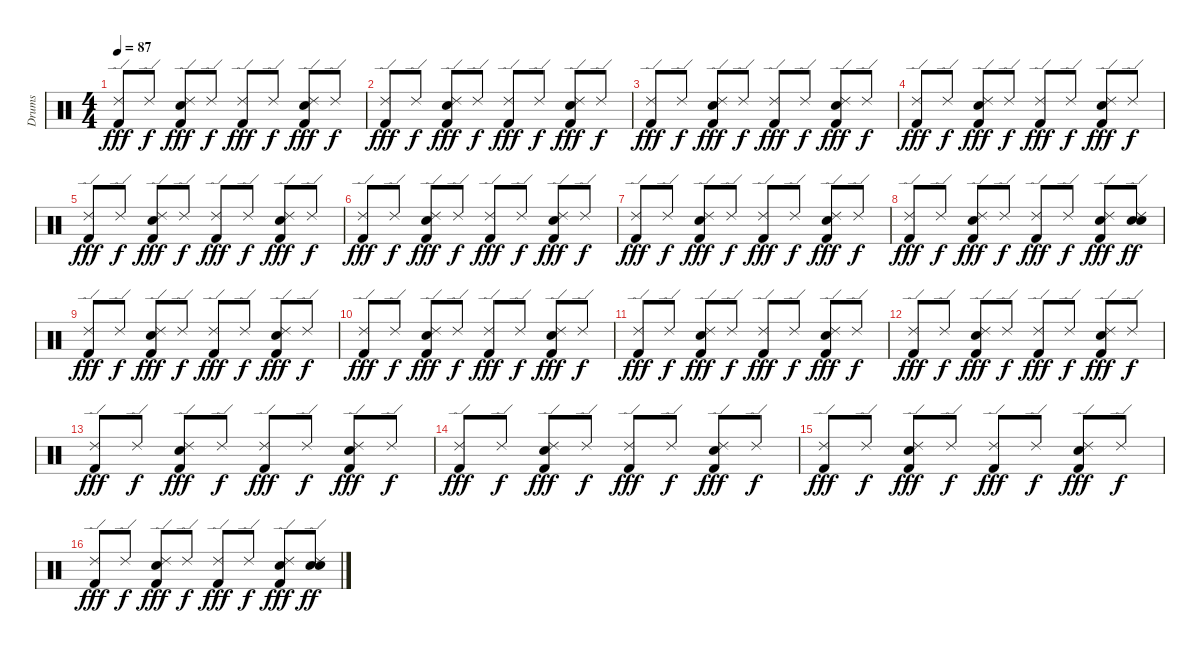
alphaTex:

\track ("Drums" "Drums") {instrument percussion}
\staff {score}
\articulation defaults
\ts (4 4)
\tempo 87
\clef neutral
\ks c
("Kick (hit) 2" "Ride (edge) 2").8{dy fff} "Ride (edge) 2".8{dy f} ("Electric Snare (hit)" "Kick (hit) 2" "Ride (edge) 2").8{dy fff} "Ride (edge) 2".8{dy f} ("Kick (hit) 2" "Ride (edge) 2").8{dy fff} "Ride (edge) 2".8{dy f} ("Electric Snare (hit)" "Kick (hit) 2" "Ride (edge) 2").8{dy fff} "Ride (edge) 2".8{dy f} |
("Kick (hit) 2" "Ride (edge) 2").8{dy fff volume 15} "Ride (edge) 2".8{dy f} ("Electric Snare (hit)" "Kick (hit) 2" "Ride (edge) 2").8{dy fff volume 15} "Ride (edge) 2".8{dy f volume 15} ("Kick (hit) 2" "Ride (edge) 2").8{dy fff volume 15} "Ride (edge) 2".8{dy f} ("Electric Snare (hit)" "Kick (hit) 2" "Ride (edge) 2").8{dy fff volume 14} "Ride (edge) 2".8{dy f volume 14} |
("Kick (hit) 2" "Ride (edge) 2").8{dy fff volume 14} "Ride (edge) 2".8{dy f volume 14} ("Electric Snare (hit)" "Kick (hit) 2" "Ride (edge) 2").8{dy fff} "Ride (edge) 2".8{dy f volume 14} ("Kick (hit) 2" "Ride (edge) 2").8{dy fff volume 14} "Ride (edge) 2".8{dy f volume 14} ("Electric Snare (hit)" "Kick (hit) 2" "Ride (edge) 2").8{dy fff volume 14} "Ride (edge) 2".8{dy f} |
("Kick (hit) 2" "Ride (edge) 2").8{dy fff volume 14} "Ride (edge) 2".8{dy f volume 13} ("Electric Snare (hit)" "Kick (hit) 2" "Ride (edge) 2").8{dy fff volume 13} "Ride (edge) 2".8{dy f volume 13} ("Kick (hit) 2" "Ride (edge) 2").8{dy fff} "Ride (edge) 2".8{dy f volume 13} ("Electric Snare (hit)" "Kick (hit) 2" "Ride (edge) 2").8{dy fff volume 13} "Ride (edge) 2".8{dy f volume 13} |
("Kick (hit) 2" "Ride (edge) 2").8{dy fff} "Ride (edge) 2".8{dy f volume 13} ("Electric Snare (hit)" "Kick (hit) 2" "Ride (edge) 2").8{dy fff volume 12} "Ride (edge) 2".8{dy f volume 12} ("Kick (hit) 2" "Ride (edge) 2").8{dy fff volume 12} "Ride (edge) 2".8{dy f} ("Electric Snare (hit)" "Kick (hit) 2" "Ride (edge) 2").8{dy fff volume 12} "Ride (edge) 2".8{dy f volume 12} |
("Kick (hit) 2" "Ride (edge) 2").8{dy fff volume 12} "Ride (edge) 2".8{dy f volume 12} ("Electric Snare (hit)" "Kick (hit) 2" "Ride (edge) 2").8{dy fff} "Ride (edge) 2".8{dy f volume 12} ("Kick (hit) 2" "Ride (edge) 2").8{dy fff volume 12} "Ride (edge) 2".8{dy f volume 11} ("Electric Snare (hit)" "Kick (hit) 2" "Ride (edge) 2").8{dy fff volume 11} "Ride (edge) 2".8{dy f} |
("Kick (hit) 2" "Ride (edge) 2").8{dy fff volume 11} "Ride (edge) 2".8{dy f volume 11} ("Electric Snare (hit)" "Kick (hit) 2" "Ride (edge) 2").8{dy fff volume 11} "Ride (edge) 2".8{dy f} ("Kick (hit) 2" "Ride (edge) 2").8{dy fff volume 11} "Ride (edge) 2".8{dy f volume 11} ("Electric Snare (hit)" "Kick (hit) 2" "Ride (edge) 2").8{dy fff volume 10} "Ride (edge) 2".8{dy f volume 10} |
("Kick (hit) 2" "Ride (edge) 2").8{dy fff} "Ride (edge) 2".8{dy f volume 10} ("Electric Snare (hit)" "Kick (hit) 2" "Ride (edge) 2").8{dy fff volume 10} "Ride (edge) 2".8{dy f volume 10} ("Kick (hit) 2" "Ride (edge) 2").8{dy fff volume 10} "Ride (edge) 2".8{dy f} ("Electric Snare (hit)" "Kick (hit) 2" "Ride (edge) 2").8{dy fff volume 10} ("Electric Snare (hit)" "Ride (edge) 2" "Electric Snare (hit)").8{dy ff volume 10} |
("Kick (hit) 2" "Ride (edge) 2").8{dy fff volume 10} "Ride (edge) 2".8{dy f volume 9} ("Electric Snare (hit)" "Kick (hit) 2" "Ride (edge) 2").8{dy fff} "Ride (edge) 2".8{dy f volume 9} ("Kick (hit) 2" "Ride (edge) 2").8{dy fff volume 9} "Ride (edge) 2".8{dy f volume 9} ("Electric Snare (hit)" "Kick (hit) 2" "Ride (edge) 2").8{dy fff} "Ride (edge) 2".8{dy f volume 9} |
("Kick (hit) 2" "Ride (edge) 2").8{dy fff volume 9} "Ride (edge) 2".8{dy f volume 9} ("Electric Snare (hit)" "Kick (hit) 2" "Ride (edge) 2").8{dy fff volume 8} "Ride (edge) 2".8{dy f} ("Kick (hit) 2" "Ride (edge) 2").8{dy fff volume 8} "Ride (edge) 2".8{dy f volume 8} ("Electric Snare (hit)" "Kick (hit) 2" "Ride (edge) 2").8{dy fff volume 8} "Ride (edge) 2".8{dy f volume 8} |
("Kick (hit) 2" "Ride (edge) 2").8{dy fff} "Ride (edge) 2".8{dy f volume 8} ("Electric Snare (hit)" "Kick (hit) 2" "Ride (edge) 2").8{dy fff volume 8} "Ride (edge) 2".8{dy f volume 8} ("Kick (hit) 2" "Ride (edge) 2").8{dy fff volume 8} "Ride (edge) 2".8{dy f} ("Electric Snare (hit)" "Kick (hit) 2" "Ride (edge) 2").8{dy fff volume 7} "Ride (edge) 2".8{dy f volume 7} |
("Kick (hit) 2" "Ride (edge) 2").8{dy fff volume 7} "Ride (edge) 2".8{dy f} ("Electric Snare (hit)" "Kick (hit) 2" "Ride (edge) 2").8{dy fff volume 7} "Ride (edge) 2".8{dy f volume 7} ("Kick (hit) 2" "Ride (edge) 2").8{dy fff volume 7} "Ride (edge) 2".8{dy f volume 7} ("Electric Snare (hit)" "Kick (hit) 2" "Ride (edge) 2").8{dy fff} "Ride (edge) 2".8{dy f volume 6} |
("Kick (hit) 2" "Ride (edge) 2").8{dy fff volume 6} "Ride (edge) 2".8{dy f volume 6} ("Electric Snare (hit)" "Kick (hit) 2" "Ride (edge) 2").8{dy fff volume 6} "Ride (edge) 2".8{dy f} ("Kick (hit) 2" "Ride (edge) 2").8{dy fff volume 6} "Ride (edge) 2".8{dy f volume 6} ("Electric Snare (hit)" "Kick (hit) 2" "Ride (edge) 2").8{dy fff volume 6} "Ride (edge) 2".8{dy f volume 6} |
("Kick (hit) 2" "Ride (edge) 2").8{dy fff} "Ride (edge) 2".8{dy f volume 6} ("Electric Snare (hit)" "Kick (hit) 2" "Ride (edge) 2").8{dy fff volume 5} "Ride (edge) 2".8{dy f volume 5} ("Kick (hit) 2" "Ride (edge) 2").8{dy fff} "Ride (edge) 2".8{dy f volume 5} ("Electric Snare (hit)" "Kick (hit) 2" "Ride (edge) 2").8{dy fff volume 5} "Ride (edge) 2".8{dy f volume 5} |
("Kick (hit) 2" "Ride (edge) 2").8{dy fff volume 5} "Ride (edge) 2".8{dy f} ("Electric Snare (hit)" "Kick (hit) 2" "Ride (edge) 2").8{dy fff volume 5} "Ride (edge) 2".8{dy f volume 4} ("Kick (hit) 2" "Ride (edge) 2").8{dy fff volume 4} "Ride (edge) 2".8{dy f volume 4} ("Electric Snare (hit)" "Kick (hit) 2" "Ride (edge) 2").8{dy fff} "Ride (edge) 2".8{dy f volume 4} |
("Kick (hit) 2" "Ride (edge) 2").8{dy fff volume 4} "Ride (edge) 2".8{dy f volume 4} ("Electric Snare (hit)" "Kick (hit) 2" "Ride (edge) 2").8{dy fff volume 4} "Ride (edge) 2".8{dy f} ("Kick (hit) 2" "Ride (edge) 2").8{dy fff volume 4} "Ride (edge) 2".8{dy f volume 4} ("Electric Snare (hit)" "Kick (hit) 2" "Ride (edge) 2").8{dy fff volume 3} ("Electric Snare (hit)" "Ride (edge) 2" "Electric Snare (hit)").8{dy ff}
